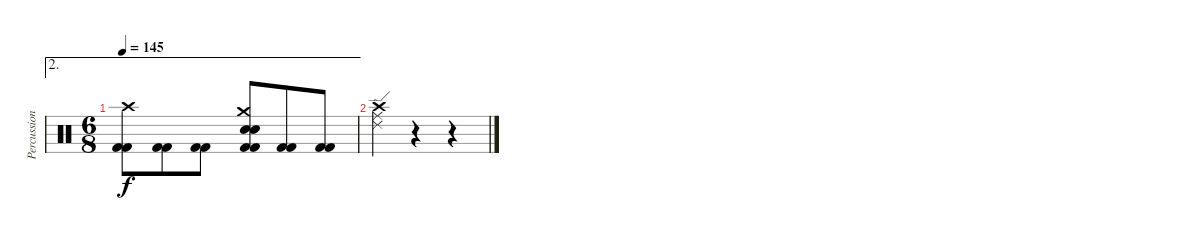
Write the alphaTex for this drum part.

\track ("Percussion" "Percussion") {instrument percussion}
\staff {score}
\articulation defaults
\ae 2
\ts (6 8)
\tempo 145
\clef neutral
\ks c
("Crash high (hit)" "Kick (hit) 2" "Kick (hit) 2").8{dy f} ("Kick (hit) 2" "Kick (hit) 2").8 ("Kick (hit) 2" "Kick (hit) 2").8 ("Crash medium (hit)" "Electric Snare (hit)" "Electric Snare (hit)" "Kick (hit) 2" "Kick (hit) 2").8 ("Kick (hit) 2" "Kick (hit) 2").8 ("Kick (hit) 2" "Kick (hit) 2").8 |
("Crash high (hit)" "Ride (middle)" "Ride (edge) 2").4 r.4 r.4
